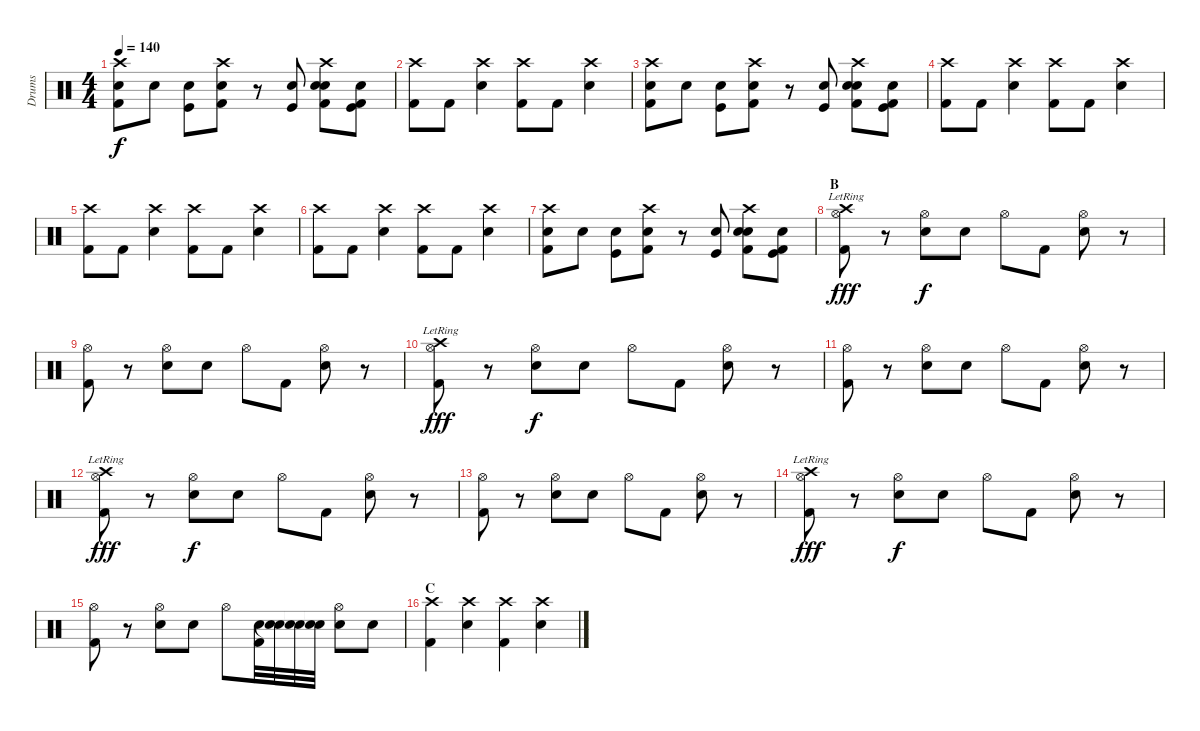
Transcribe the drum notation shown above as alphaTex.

\track ("Drums" "Drums") {instrument percussion}
\staff {score}
\articulation defaults
\ts (4 4)
\tempo 140
\clef neutral
\ks c
("Crash high (hit)" "Electric Snare (hit)" "Kick (hit) 2").8{dy f} "Electric Snare (hit)".8 ("Kick (hit)" "Electric Snare (hit)").8 ("Crash high (hit)" "Electric Snare (hit)" "Kick (hit) 2").8 r.8 ("Kick (hit)" "Electric Snare (hit)").8 ("Crash high (hit)" "Electric Snare (hit)" "Snare (hit) 2" "Kick (hit) 2").8 ("Electric Snare (hit)" "Kick (hit)" "Kick (hit) 2").8 |
("Crash high (hit)" "Kick (hit) 2").8 "Kick (hit) 2".8 ("Crash high (hit)" "Electric Snare (hit)").4 ("Crash high (hit)" "Kick (hit) 2").8 "Kick (hit) 2".8 ("Crash high (hit)" "Electric Snare (hit)").4 |
("Crash high (hit)" "Electric Snare (hit)" "Kick (hit) 2").8 "Electric Snare (hit)".8 ("Kick (hit)" "Electric Snare (hit)").8 ("Crash high (hit)" "Electric Snare (hit)" "Kick (hit) 2").8 r.8 ("Kick (hit)" "Electric Snare (hit)").8 ("Crash high (hit)" "Electric Snare (hit)" "Snare (hit) 2" "Kick (hit) 2").8 ("Electric Snare (hit)" "Kick (hit)" "Kick (hit) 2").8 |
("Crash high (hit)" "Kick (hit) 2").8 "Kick (hit) 2".8 ("Crash high (hit)" "Electric Snare (hit)").4 ("Crash high (hit)" "Kick (hit) 2").8 "Kick (hit) 2".8 ("Crash high (hit)" "Electric Snare (hit)").4 |
("Crash high (hit)" "Kick (hit) 2").8 "Kick (hit) 2".8 ("Crash high (hit)" "Electric Snare (hit)").4 ("Crash high (hit)" "Kick (hit) 2").8 "Kick (hit) 2".8 ("Crash high (hit)" "Electric Snare (hit)").4 |
("Crash high (hit)" "Kick (hit) 2").8 "Kick (hit) 2".8 ("Crash high (hit)" "Electric Snare (hit)").4 ("Crash high (hit)" "Kick (hit) 2").8 "Kick (hit) 2".8 ("Crash high (hit)" "Electric Snare (hit)").4 |
("Crash high (hit)" "Electric Snare (hit)" "Kick (hit) 2").8 "Electric Snare (hit)".8 ("Kick (hit)" "Electric Snare (hit)").8 ("Crash high (hit)" "Electric Snare (hit)" "Kick (hit) 2").8 r.8 ("Kick (hit)" "Electric Snare (hit)").8 ("Crash high (hit)" "Electric Snare (hit)" "Snare (hit) 2" "Kick (hit) 2").8 ("Electric Snare (hit)" "Kick (hit)" "Kick (hit) 2").8 |
\section ("" "B")
("Hi-Hat (open)" "Crash high (hit)"{lr} "Kick (hit) 2").8{dy fff} r.8 ("Hi-Hat (open)" "Electric Snare (hit)").8{dy f} "Electric Snare (hit)".8 "Hi-Hat (open)".8 "Kick (hit) 2".8 ("Hi-Hat (open)" "Electric Snare (hit)").8 r.8 |
("Hi-Hat (open)" "Kick (hit) 2").8 r.8 ("Hi-Hat (open)" "Electric Snare (hit)").8 "Electric Snare (hit)".8 "Hi-Hat (open)".8 "Kick (hit) 2".8 ("Hi-Hat (open)" "Electric Snare (hit)").8 r.8 |
("Hi-Hat (open)" "Crash high (hit)"{lr} "Kick (hit) 2").8{dy fff} r.8 ("Hi-Hat (open)" "Electric Snare (hit)").8{dy f} "Electric Snare (hit)".8 "Hi-Hat (open)".8 "Kick (hit) 2".8 ("Hi-Hat (open)" "Electric Snare (hit)").8 r.8 |
("Hi-Hat (open)" "Kick (hit) 2").8 r.8 ("Hi-Hat (open)" "Electric Snare (hit)").8 "Electric Snare (hit)".8 "Hi-Hat (open)".8 "Kick (hit) 2".8 ("Hi-Hat (open)" "Electric Snare (hit)").8 r.8 |
("Hi-Hat (open)" "Crash high (hit)"{lr} "Kick (hit) 2").8{dy fff} r.8 ("Hi-Hat (open)" "Electric Snare (hit)").8{dy f} "Electric Snare (hit)".8 "Hi-Hat (open)".8 "Kick (hit) 2".8 ("Hi-Hat (open)" "Electric Snare (hit)").8 r.8 |
("Hi-Hat (open)" "Kick (hit) 2").8 r.8 ("Hi-Hat (open)" "Electric Snare (hit)").8 "Electric Snare (hit)".8 "Hi-Hat (open)".8 "Kick (hit) 2".8 ("Hi-Hat (open)" "Electric Snare (hit)").8 r.8 |
("Hi-Hat (open)" "Crash high (hit)"{lr} "Kick (hit) 2").8{dy fff} r.8 ("Hi-Hat (open)" "Electric Snare (hit)").8{dy f} "Electric Snare (hit)".8 "Hi-Hat (open)".8 "Kick (hit) 2".8 ("Hi-Hat (open)" "Electric Snare (hit)").8 r.8 |
("Hi-Hat (open)" "Kick (hit) 2").8 r.8 ("Hi-Hat (open)" "Electric Snare (hit)").8 "Electric Snare (hit)".8 "Hi-Hat (open)".8 ("Electric Snare (hit)" "Kick (hit) 2").32 ("Electric Snare (hit)" "Snare (hit)"{t}).32 ("Electric Snare (hit)" "Snare (hit)"{t}).32 ("Electric Snare (hit)" "Snare (hit)"{t}).32 ("Hi-Hat (open)" "Electric Snare (hit)").8 "Electric Snare (hit)".8 |
\section ("" "C")
("Crash high (hit)" "Kick (hit) 2").4 ("Crash high (hit)" "Electric Snare (hit)").4 ("Crash high (hit)" "Kick (hit) 2").4 ("Crash high (hit)" "Electric Snare (hit)").4
